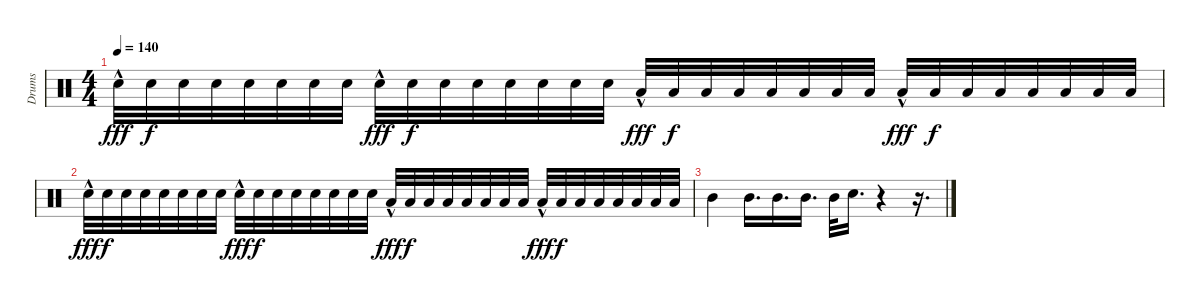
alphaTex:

\track ("Drums" "Drums") {instrument percussion}
\staff {score}
\articulation defaults
\ts (4 4)
\tempo 140
\clef neutral
\ks c "Electric Snare (hit)"{hac}.32{dy fff} "Electric Snare (hit)".32{dy f} "Electric Snare (hit)".32 "Electric Snare (hit)".32 "Electric Snare (hit)".32 "Electric Snare (hit)".32 "Electric Snare (hit)".32 "Electric Snare (hit)".32 "Electric Snare (hit)"{hac}.32{dy fff} "Electric Snare (hit)".32{dy f} "Electric Snare (hit)".32 "Electric Snare (hit)".32 "Electric Snare (hit)".32 "Electric Snare (hit)".32 "Electric Snare (hit)".32 "Electric Snare (hit)".32 "Low Tom (hit)"{hac}.32{dy fff} "Low Tom (hit)".32{dy f} "Low Tom (hit)".32 "Low Tom (hit)".32 "Low Tom (hit)".32 "Low Tom (hit)".32 "Low Tom (hit)".32 "Low Tom (hit)".32 "Low Tom (hit)"{hac}.32{dy fff} "Low Tom (hit)".32{dy f} "Low Tom (hit)".32 "Low Tom (hit)".32 "Low Tom (hit)".32 "Low Tom (hit)".32 "Low Tom (hit)".32 "Low Tom (hit)".32
|
"Electric Snare (hit)"{hac}.32{dy fff} "Electric Snare (hit)".32{dy f} "Electric Snare (hit)".32 "Electric Snare (hit)".32 "Electric Snare (hit)".32 "Electric Snare (hit)".32 "Electric Snare (hit)".32 "Electric Snare (hit)".32 "Electric Snare (hit)"{hac}.32{dy fff} "Electric Snare (hit)".32{dy f} "Electric Snare (hit)".32 "Electric Snare (hit)".32 "Electric Snare (hit)".32 "Electric Snare (hit)".32 "Electric Snare (hit)".32 "Electric Snare (hit)".32 "Low Tom (hit)"{hac}.32{dy fff} "Low Tom (hit)".32{dy f} "Low Tom (hit)".32 "Low Tom (hit)".32 "Low Tom (hit)".32 "Low Tom (hit)".32 "Low Tom (hit)".32 "Low Tom (hit)".32 "Low Tom (hit)"{hac}.32{dy fff} "Low Tom (hit)".32{dy f} "Low Tom (hit)".32 "Low Tom (hit)".32 "Low Tom (hit)".32 "Low Tom (hit)".32 "Low Tom (hit)".32 "Low Tom (hit)".32 |
"Mid Tom (hit)".4 "Mid Tom (hit)".16{d} "Mid Tom (hit)".16{d} "Mid Tom (hit)".16{d} "Mid Tom (hit)".32 "Electric Snare (hit)".16{d} r.4 r.16{d}
